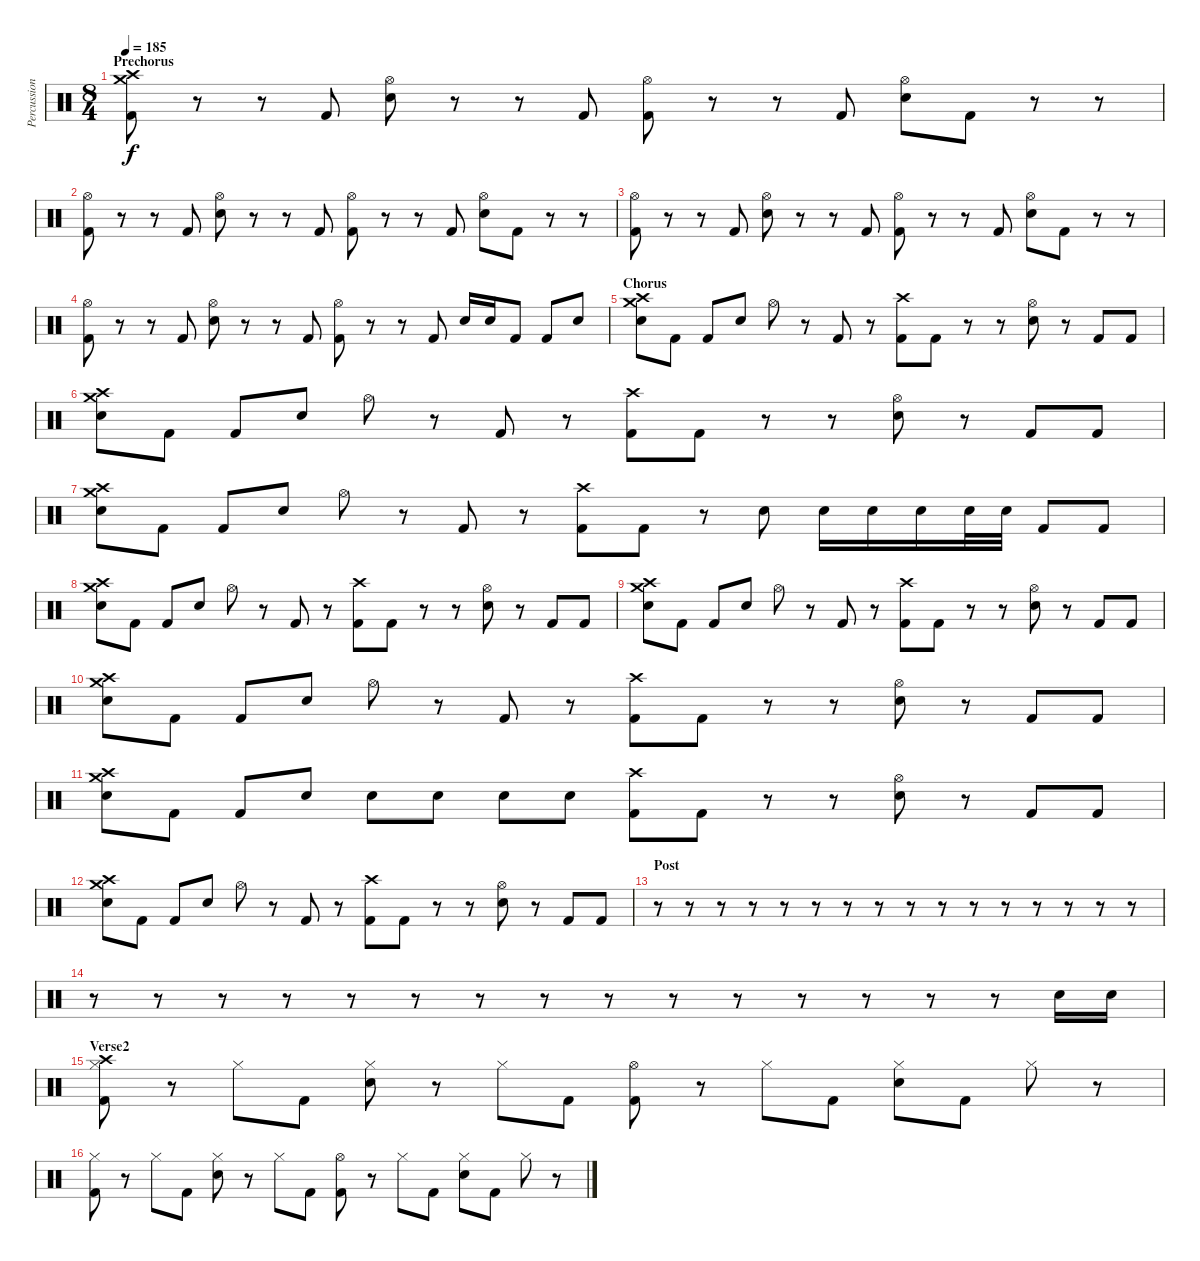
\track ("Percussion" "Percussion") {instrument percussion}
\staff {score}
\articulation defaults
\ts (8 4)
\section ("" "Prechorus")
\tempo 185
\clef neutral
\ks c
("Crash high (hit)" "Crash medium (hit)" "Kick (hit) 2").8{dy f} r.8 r.8 "Kick (hit) 2".8 ("Hi-Hat (open)" "Electric Snare (hit)").8 r.8 r.8 "Kick (hit) 2".8 ("Hi-Hat (open)" "Kick (hit) 2").8 r.8 r.8 "Kick (hit) 2".8 ("Hi-Hat (open)" "Electric Snare (hit)").8 "Kick (hit) 2".8 r.8 r.8 |
("Hi-Hat (open)" "Kick (hit) 2").8 r.8 r.8 "Kick (hit) 2".8 ("Hi-Hat (open)" "Electric Snare (hit)").8 r.8 r.8 "Kick (hit) 2".8 ("Hi-Hat (open)" "Kick (hit) 2").8 r.8 r.8 "Kick (hit) 2".8 ("Hi-Hat (open)" "Electric Snare (hit)").8 "Kick (hit) 2".8 r.8 r.8 |
("Hi-Hat (open)" "Kick (hit) 2").8 r.8 r.8 "Kick (hit) 2".8 ("Hi-Hat (open)" "Electric Snare (hit)").8 r.8 r.8 "Kick (hit) 2".8 ("Hi-Hat (open)" "Kick (hit) 2").8 r.8 r.8 "Kick (hit) 2".8 ("Hi-Hat (open)" "Electric Snare (hit)").8 "Kick (hit) 2".8 r.8 r.8 |
("Hi-Hat (open)" "Kick (hit) 2").8 r.8 r.8 "Kick (hit) 2".8 ("Hi-Hat (open)" "Electric Snare (hit)").8 r.8 r.8 "Kick (hit) 2".8 ("Hi-Hat (open)" "Kick (hit) 2").8 r.8 r.8 "Kick (hit) 2".8 "Electric Snare (hit)".16 "Electric Snare (hit)".16 "Kick (hit) 2".8 "Kick (hit) 2".8 "Electric Snare (hit)".8 |
\section ("" "Chorus")
("Crash high (hit)" "Crash medium (hit)" "Electric Snare (hit)").8 "Kick (hit) 2".8 "Kick (hit) 2".8 "Electric Snare (hit)".8 "Hi-Hat (open)".8 r.8 "Kick (hit) 2".8 r.8 ("Crash high (hit)" "Kick (hit) 2").8 "Kick (hit) 2".8 r.8 r.8 ("Hi-Hat (open)" "Electric Snare (hit)").8 r.8 "Kick (hit) 2".8 "Kick (hit) 2".8 |
("Crash high (hit)" "Crash medium (hit)" "Electric Snare (hit)").8 "Kick (hit) 2".8 "Kick (hit) 2".8 "Electric Snare (hit)".8 "Hi-Hat (open)".8 r.8 "Kick (hit) 2".8 r.8 ("Crash high (hit)" "Kick (hit) 2").8 "Kick (hit) 2".8 r.8 r.8 ("Hi-Hat (open)" "Electric Snare (hit)").8 r.8 "Kick (hit) 2".8 "Kick (hit) 2".8 |
("Crash high (hit)" "Crash medium (hit)" "Electric Snare (hit)").8 "Kick (hit) 2".8 "Kick (hit) 2".8 "Electric Snare (hit)".8 "Hi-Hat (open)".8 r.8 "Kick (hit) 2".8 r.8 ("Crash high (hit)" "Kick (hit) 2").8 "Kick (hit) 2".8 r.8 "Electric Snare (hit)".8 "Electric Snare (hit)".16 "Electric Snare (hit)".16 "Electric Snare (hit)".16 "Electric Snare (hit)".32 "Electric Snare (hit)".32 "Kick (hit) 2".8 "Kick (hit) 2".8 |
("Crash high (hit)" "Crash medium (hit)" "Electric Snare (hit)").8 "Kick (hit) 2".8 "Kick (hit) 2".8 "Electric Snare (hit)".8 "Hi-Hat (open)".8 r.8 "Kick (hit) 2".8 r.8 ("Crash high (hit)" "Kick (hit) 2").8 "Kick (hit) 2".8 r.8 r.8 ("Hi-Hat (open)" "Electric Snare (hit)").8 r.8 "Kick (hit) 2".8 "Kick (hit) 2".8 |
("Crash high (hit)" "Crash medium (hit)" "Electric Snare (hit)").8 "Kick (hit) 2".8 "Kick (hit) 2".8 "Electric Snare (hit)".8 "Hi-Hat (open)".8 r.8 "Kick (hit) 2".8 r.8 ("Crash high (hit)" "Kick (hit) 2").8 "Kick (hit) 2".8 r.8 r.8 ("Hi-Hat (open)" "Electric Snare (hit)").8 r.8 "Kick (hit) 2".8 "Kick (hit) 2".8 |
("Crash high (hit)" "Crash medium (hit)" "Electric Snare (hit)").8 "Kick (hit) 2".8 "Kick (hit) 2".8 "Electric Snare (hit)".8 "Hi-Hat (open)".8 r.8 "Kick (hit) 2".8 r.8 ("Crash high (hit)" "Kick (hit) 2").8 "Kick (hit) 2".8 r.8 r.8 ("Hi-Hat (open)" "Electric Snare (hit)").8 r.8 "Kick (hit) 2".8 "Kick (hit) 2".8 |
("Crash high (hit)" "Crash medium (hit)" "Electric Snare (hit)").8 "Kick (hit) 2".8 "Kick (hit) 2".8 "Electric Snare (hit)".8 "Electric Snare (hit)".8 "Electric Snare (hit)".8 "Electric Snare (hit)".8 "Electric Snare (hit)".8 ("Crash high (hit)" "Kick (hit) 2").8 "Kick (hit) 2".8 r.8 r.8 ("Hi-Hat (open)" "Electric Snare (hit)").8 r.8 "Kick (hit) 2".8 "Kick (hit) 2".8 |
("Crash high (hit)" "Crash medium (hit)" "Electric Snare (hit)").8 "Kick (hit) 2".8 "Kick (hit) 2".8 "Electric Snare (hit)".8 "Hi-Hat (open)".8 r.8 "Kick (hit) 2".8 r.8 ("Crash high (hit)" "Kick (hit) 2").8 "Kick (hit) 2".8 r.8 r.8 ("Hi-Hat (open)" "Electric Snare (hit)").8 r.8 "Kick (hit) 2".8 "Kick (hit) 2".8 |
\section ("" "Post")
r.8 r.8 r.8 r.8 r.8 r.8 r.8 r.8 r.8 r.8 r.8 r.8 r.8 r.8 r.8 r.8 |
r.8 r.8 r.8 r.8 r.8 r.8 r.8 r.8 r.8 r.8 r.8 r.8 r.8 r.8 r.8 "Electric Snare (hit)".16 "Electric Snare (hit)".16 |
\section ("" "Verse2")
("Crash high (hit)" "Hi-Hat (closed)" "Kick (hit) 2").8 r.8 "Hi-Hat (closed)".8 "Kick (hit) 2".8 ("Hi-Hat (closed)" "Electric Snare (hit)").8 r.8 "Hi-Hat (closed)".8 "Kick (hit) 2".8 ("Hi-Hat (open)" "Kick (hit) 2").8 r.8 "Hi-Hat (closed)".8 "Kick (hit) 2".8 ("Hi-Hat (closed)" "Electric Snare (hit)").8 "Kick (hit) 2".8 "Hi-Hat (closed)".8 r.8 |
("Hi-Hat (closed)" "Kick (hit) 2").8 r.8 "Hi-Hat (closed)".8 "Kick (hit) 2".8 ("Hi-Hat (closed)" "Electric Snare (hit)").8 r.8 "Hi-Hat (closed)".8 "Kick (hit) 2".8 ("Hi-Hat (open)" "Kick (hit) 2").8 r.8 "Hi-Hat (closed)".8 "Kick (hit) 2".8 ("Hi-Hat (closed)" "Electric Snare (hit)").8 "Kick (hit) 2".8 "Hi-Hat (closed)".8 r.8
